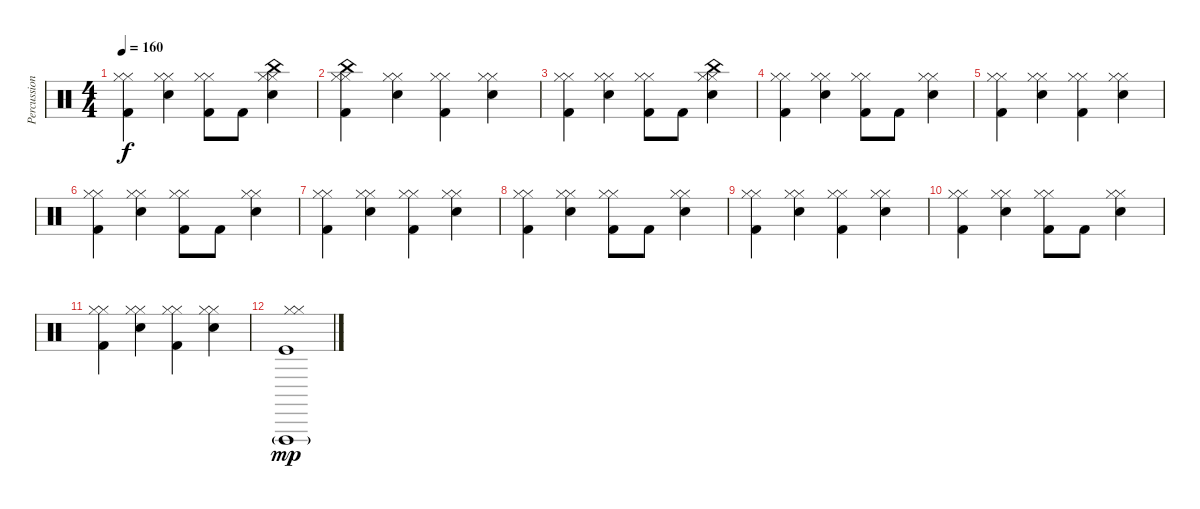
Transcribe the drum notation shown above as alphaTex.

\track ("Percussion" "Percussion") {instrument percussion}
\staff {score}
\articulation defaults
\ts (4 4)
\tempo 160
\clef neutral
\ks c
("Hi-Hat (closed)" "Hi-Hat (closed)" "Kick (hit) 2").4{dy f} ("Hi-Hat (closed)" "Hi-Hat (closed)" "Snare (hit) 2").4 ("Hi-Hat (closed)" "Hi-Hat (closed)" "Kick (hit) 2").8 "Kick (hit) 2".8 ("Hi-Hat (closed)" "Hi-Hat (closed)" "China (hit)" "Snare (hit) 2").4 |
("Hi-Hat (closed)" "Hi-Hat (closed)" "China (hit)" "Kick (hit) 2").4 ("Hi-Hat (closed)" "Hi-Hat (closed)" "Snare (hit) 2").4 ("Hi-Hat (closed)" "Hi-Hat (closed)" "Kick (hit) 2").4 ("Hi-Hat (closed)" "Hi-Hat (closed)" "Snare (hit) 2").4 |
("Hi-Hat (closed)" "Hi-Hat (closed)" "Kick (hit) 2").4 ("Hi-Hat (closed)" "Hi-Hat (closed)" "Snare (hit) 2").4 ("Hi-Hat (closed)" "Hi-Hat (closed)" "Kick (hit) 2").8 "Kick (hit) 2".8 ("Hi-Hat (closed)" "Hi-Hat (closed)" "China (hit)" "Snare (hit) 2").4 |
("Hi-Hat (closed)" "Hi-Hat (closed)" "Kick (hit) 2").4 ("Hi-Hat (closed)" "Hi-Hat (closed)" "Snare (hit) 2").4 ("Hi-Hat (closed)" "Hi-Hat (closed)" "Kick (hit) 2").8 "Kick (hit) 2".8 ("Hi-Hat (closed)" "Hi-Hat (closed)" "Snare (hit) 2").4 |
("Hi-Hat (closed)" "Hi-Hat (closed)" "Kick (hit) 2").4 ("Hi-Hat (closed)" "Hi-Hat (closed)" "Snare (hit) 2").4 ("Hi-Hat (closed)" "Hi-Hat (closed)" "Kick (hit) 2").4 ("Hi-Hat (closed)" "Hi-Hat (closed)" "Snare (hit) 2").4 |
("Hi-Hat (closed)" "Hi-Hat (closed)" "Kick (hit) 2").4 ("Hi-Hat (closed)" "Hi-Hat (closed)" "Snare (hit) 2").4 ("Hi-Hat (closed)" "Hi-Hat (closed)" "Kick (hit) 2").8 "Kick (hit) 2".8 ("Hi-Hat (closed)" "Hi-Hat (closed)" "Snare (hit) 2").4 |
("Hi-Hat (closed)" "Hi-Hat (closed)" "Kick (hit) 2").4 ("Hi-Hat (closed)" "Hi-Hat (closed)" "Snare (hit) 2").4 ("Hi-Hat (closed)" "Hi-Hat (closed)" "Kick (hit) 2").4 ("Hi-Hat (closed)" "Hi-Hat (closed)" "Snare (hit) 2").4 |
("Hi-Hat (closed)" "Hi-Hat (closed)" "Kick (hit) 2").4 ("Hi-Hat (closed)" "Hi-Hat (closed)" "Snare (hit) 2").4 ("Hi-Hat (closed)" "Hi-Hat (closed)" "Kick (hit) 2").8 "Kick (hit) 2".8 ("Hi-Hat (closed)" "Hi-Hat (closed)" "Snare (hit) 2").4 |
("Hi-Hat (closed)" "Hi-Hat (closed)" "Kick (hit) 2").4 ("Hi-Hat (closed)" "Hi-Hat (closed)" "Snare (hit) 2").4 ("Hi-Hat (closed)" "Hi-Hat (closed)" "Kick (hit) 2").4 ("Hi-Hat (closed)" "Hi-Hat (closed)" "Snare (hit) 2").4 |
("Hi-Hat (closed)" "Hi-Hat (closed)" "Kick (hit) 2").4 ("Hi-Hat (closed)" "Hi-Hat (closed)" "Snare (hit) 2").4 ("Hi-Hat (closed)" "Hi-Hat (closed)" "Kick (hit) 2").8 "Kick (hit) 2".8 ("Hi-Hat (closed)" "Hi-Hat (closed)" "Snare (hit) 2").4 |
("Hi-Hat (closed)" "Hi-Hat (closed)" "Kick (hit) 2").4 ("Hi-Hat (closed)" "Hi-Hat (closed)" "Snare (hit) 2").4 ("Hi-Hat (closed)" "Hi-Hat (closed)" "Kick (hit) 2").4 ("Hi-Hat (closed)" "Hi-Hat (closed)" "Snare (hit) 2").4 |
("Hi-Hat (closed)" "Hi-Hat (closed)" "Kick (hit)" "Vibraslap (hit)"{g}).1{dy mp}
